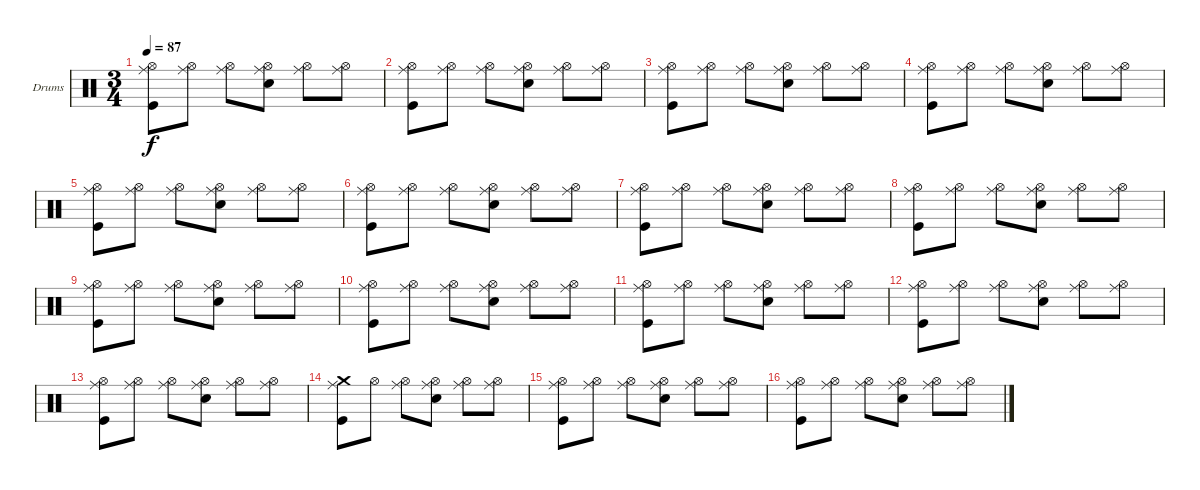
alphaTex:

\bracketExtendMode groupsimilarinstruments
\firstSystemTrackNameOrientation horizontal
\otherSystemsTrackNameOrientation horizontal
\track ("Drumkit" "Drums") {instrument percussion}
\staff {score}
\articulation defaults
\ts (3 4)
\tempo 87
\clef neutral
\ks c
("Ride (middle)" "Kick (hit)" "Hi-Hat (open)").8{dy f} ("Ride (middle)" "Hi-Hat (open)").8 ("Ride (middle)" "Hi-Hat (open)").8 ("Ride (middle)" "Snare (hit) 2" "Hi-Hat (open)").8 ("Ride (middle)" "Hi-Hat (open)").8 ("Ride (middle)" "Hi-Hat (open)").8 |
("Ride (middle)" "Kick (hit)" "Hi-Hat (open)").8 ("Ride (middle)" "Hi-Hat (open)").8 ("Ride (middle)" "Hi-Hat (open)").8 ("Ride (middle)" "Snare (hit) 2" "Hi-Hat (open)").8 ("Ride (middle)" "Hi-Hat (open)").8 ("Ride (middle)" "Hi-Hat (open)").8 |
("Ride (middle)" "Kick (hit)" "Hi-Hat (open)").8 ("Ride (middle)" "Hi-Hat (open)").8 ("Ride (middle)" "Hi-Hat (open)").8 ("Ride (middle)" "Snare (hit) 2" "Hi-Hat (open)").8 ("Ride (middle)" "Hi-Hat (open)").8 ("Ride (middle)" "Hi-Hat (open)").8 |
("Ride (middle)" "Kick (hit)" "Hi-Hat (open)").8 ("Ride (middle)" "Hi-Hat (open)").8 ("Ride (middle)" "Hi-Hat (open)").8 ("Ride (middle)" "Snare (hit) 2" "Hi-Hat (open)").8 ("Ride (middle)" "Hi-Hat (open)").8 ("Ride (middle)" "Hi-Hat (open)").8 |
("Ride (middle)" "Kick (hit)" "Hi-Hat (open)").8 ("Ride (middle)" "Hi-Hat (open)").8 ("Ride (middle)" "Hi-Hat (open)").8 ("Ride (middle)" "Snare (hit) 2" "Hi-Hat (open)").8 ("Ride (middle)" "Hi-Hat (open)").8 ("Ride (middle)" "Hi-Hat (open)").8 |
("Ride (middle)" "Kick (hit)" "Hi-Hat (open)").8 ("Ride (middle)" "Hi-Hat (open)").8 ("Ride (middle)" "Hi-Hat (open)").8 ("Ride (middle)" "Snare (hit) 2" "Hi-Hat (open)").8 ("Ride (middle)" "Hi-Hat (open)").8 ("Ride (middle)" "Hi-Hat (open)").8 |
("Ride (middle)" "Kick (hit)" "Hi-Hat (open)").8 ("Ride (middle)" "Hi-Hat (open)").8 ("Ride (middle)" "Hi-Hat (open)").8 ("Ride (middle)" "Snare (hit) 2" "Hi-Hat (open)").8 ("Ride (middle)" "Hi-Hat (open)").8 ("Ride (middle)" "Hi-Hat (open)").8 |
("Ride (middle)" "Kick (hit)" "Hi-Hat (open)").8 ("Ride (middle)" "Hi-Hat (open)").8 ("Ride (middle)" "Hi-Hat (open)").8 ("Ride (middle)" "Snare (hit) 2" "Hi-Hat (open)").8 ("Ride (middle)" "Hi-Hat (open)").8 ("Ride (middle)" "Hi-Hat (open)").8 |
("Ride (middle)" "Kick (hit)" "Hi-Hat (open)").8 ("Ride (middle)" "Hi-Hat (open)").8 ("Ride (middle)" "Hi-Hat (open)").8 ("Ride (middle)" "Snare (hit) 2" "Hi-Hat (open)").8 ("Ride (middle)" "Hi-Hat (open)").8 ("Ride (middle)" "Hi-Hat (open)").8 |
("Ride (middle)" "Kick (hit)" "Hi-Hat (open)").8 ("Ride (middle)" "Hi-Hat (open)").8 ("Ride (middle)" "Hi-Hat (open)").8 ("Ride (middle)" "Snare (hit) 2" "Hi-Hat (open)").8 ("Ride (middle)" "Hi-Hat (open)").8 ("Ride (middle)" "Hi-Hat (open)").8 |
("Ride (middle)" "Kick (hit)" "Hi-Hat (open)").8 ("Ride (middle)" "Hi-Hat (open)").8 ("Ride (middle)" "Hi-Hat (open)").8 ("Ride (middle)" "Snare (hit) 2" "Hi-Hat (open)").8 ("Ride (middle)" "Hi-Hat (open)").8 ("Ride (middle)" "Hi-Hat (open)").8 |
("Ride (middle)" "Kick (hit)" "Hi-Hat (open)").8 ("Ride (middle)" "Hi-Hat (open)").8 ("Ride (middle)" "Hi-Hat (open)").8 ("Ride (middle)" "Snare (hit) 2" "Hi-Hat (open)").8 ("Ride (middle)" "Hi-Hat (open)").8 ("Ride (middle)" "Hi-Hat (open)").8 |
("Ride (middle)" "Kick (hit)" "Hi-Hat (open)").8 ("Ride (middle)" "Hi-Hat (open)").8 ("Ride (middle)" "Hi-Hat (open)").8 ("Ride (middle)" "Snare (hit) 2" "Hi-Hat (open)").8 ("Ride (middle)" "Hi-Hat (open)").8 ("Ride (middle)" "Hi-Hat (open)").8 |
("Crash medium (hit)" "Ride (middle)" "Kick (hit)").8 "Hi-Hat (open)".8 ("Ride (middle)" "Hi-Hat (open)").8 ("Ride (middle)" "Snare (hit) 2" "Hi-Hat (open)").8 ("Ride (middle)" "Hi-Hat (open)").8 ("Ride (middle)" "Hi-Hat (open)").8 |
("Ride (middle)" "Kick (hit)" "Hi-Hat (open)").8 ("Ride (middle)" "Hi-Hat (open)").8 ("Ride (middle)" "Hi-Hat (open)").8 ("Ride (middle)" "Snare (hit) 2" "Hi-Hat (open)").8 ("Ride (middle)" "Hi-Hat (open)").8 ("Ride (middle)" "Hi-Hat (open)").8 |
("Ride (middle)" "Kick (hit)" "Hi-Hat (open)").8 ("Ride (middle)" "Hi-Hat (open)").8 ("Ride (middle)" "Hi-Hat (open)").8 ("Ride (middle)" "Snare (hit) 2" "Hi-Hat (open)").8 ("Ride (middle)" "Hi-Hat (open)").8 ("Ride (middle)" "Hi-Hat (open)").8
